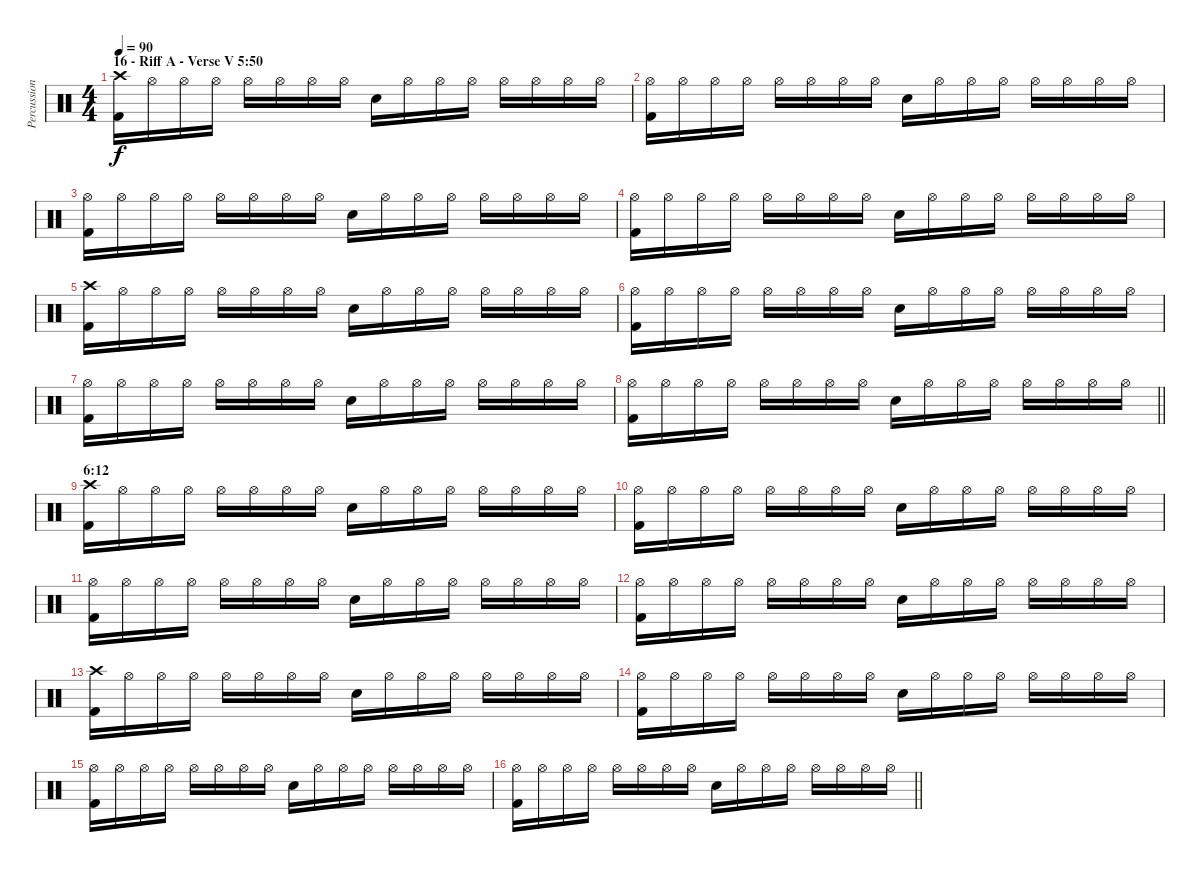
\track ("Percussion" "Percussion") {instrument percussion}
\staff {score}
\articulation defaults
\ts (4 4)
\section ("" "16 - Riff A - Verse V 5:50")
\tempo 90
\clef neutral
\ks c
("Crash high (hit)" "Kick (hit) 2").16{dy f} "Hi-Hat (open)".16 "Hi-Hat (open)".16 "Hi-Hat (open)".16 "Hi-Hat (open)".16 "Hi-Hat (open)".16 "Hi-Hat (open)".16 "Hi-Hat (open)".16 "Snare (hit) 2".16 "Hi-Hat (open)".16 "Hi-Hat (open)".16 "Hi-Hat (open)".16 "Hi-Hat (open)".16 "Hi-Hat (open)".16 "Hi-Hat (open)".16 "Hi-Hat (open)".16 |
("Hi-Hat (open)" "Kick (hit) 2").16 "Hi-Hat (open)".16 "Hi-Hat (open)".16 "Hi-Hat (open)".16 "Hi-Hat (open)".16 "Hi-Hat (open)".16 "Hi-Hat (open)".16 "Hi-Hat (open)".16 "Snare (hit) 2".16 "Hi-Hat (open)".16 "Hi-Hat (open)".16 "Hi-Hat (open)".16 "Hi-Hat (open)".16 "Hi-Hat (open)".16 "Hi-Hat (open)".16 "Hi-Hat (open)".16 |
("Hi-Hat (open)" "Kick (hit) 2").16 "Hi-Hat (open)".16 "Hi-Hat (open)".16 "Hi-Hat (open)".16 "Hi-Hat (open)".16 "Hi-Hat (open)".16 "Hi-Hat (open)".16 "Hi-Hat (open)".16 "Snare (hit) 2".16 "Hi-Hat (open)".16 "Hi-Hat (open)".16 "Hi-Hat (open)".16 "Hi-Hat (open)".16 "Hi-Hat (open)".16 "Hi-Hat (open)".16 "Hi-Hat (open)".16 |
("Hi-Hat (open)" "Kick (hit) 2").16 "Hi-Hat (open)".16 "Hi-Hat (open)".16 "Hi-Hat (open)".16 "Hi-Hat (open)".16 "Hi-Hat (open)".16 "Hi-Hat (open)".16 "Hi-Hat (open)".16 "Snare (hit) 2".16 "Hi-Hat (open)".16 "Hi-Hat (open)".16 "Hi-Hat (open)".16 "Hi-Hat (open)".16 "Hi-Hat (open)".16 "Hi-Hat (open)".16 "Hi-Hat (open)".16 |
("Crash high (hit)" "Kick (hit) 2").16 "Hi-Hat (open)".16 "Hi-Hat (open)".16 "Hi-Hat (open)".16 "Hi-Hat (open)".16 "Hi-Hat (open)".16 "Hi-Hat (open)".16 "Hi-Hat (open)".16 "Snare (hit) 2".16 "Hi-Hat (open)".16 "Hi-Hat (open)".16 "Hi-Hat (open)".16 "Hi-Hat (open)".16 "Hi-Hat (open)".16 "Hi-Hat (open)".16 "Hi-Hat (open)".16 |
("Hi-Hat (open)" "Kick (hit) 2").16 "Hi-Hat (open)".16 "Hi-Hat (open)".16 "Hi-Hat (open)".16 "Hi-Hat (open)".16 "Hi-Hat (open)".16 "Hi-Hat (open)".16 "Hi-Hat (open)".16 "Snare (hit) 2".16 "Hi-Hat (open)".16 "Hi-Hat (open)".16 "Hi-Hat (open)".16 "Hi-Hat (open)".16 "Hi-Hat (open)".16 "Hi-Hat (open)".16 "Hi-Hat (open)".16 |
("Hi-Hat (open)" "Kick (hit) 2").16 "Hi-Hat (open)".16 "Hi-Hat (open)".16 "Hi-Hat (open)".16 "Hi-Hat (open)".16 "Hi-Hat (open)".16 "Hi-Hat (open)".16 "Hi-Hat (open)".16 "Snare (hit) 2".16 "Hi-Hat (open)".16 "Hi-Hat (open)".16 "Hi-Hat (open)".16 "Hi-Hat (open)".16 "Hi-Hat (open)".16 "Hi-Hat (open)".16 "Hi-Hat (open)".16 |
\barLineRight lightlight
("Hi-Hat (open)" "Kick (hit) 2").16 "Hi-Hat (open)".16 "Hi-Hat (open)".16 "Hi-Hat (open)".16 "Hi-Hat (open)".16 "Hi-Hat (open)".16 "Hi-Hat (open)".16 "Hi-Hat (open)".16 "Snare (hit) 2".16 "Hi-Hat (open)".16 "Hi-Hat (open)".16 "Hi-Hat (open)".16 "Hi-Hat (open)".16 "Hi-Hat (open)".16 "Hi-Hat (open)".16 "Hi-Hat (open)".16 |
\section ("" "6:12")
("Crash high (hit)" "Kick (hit) 2").16 "Hi-Hat (open)".16 "Hi-Hat (open)".16 "Hi-Hat (open)".16 "Hi-Hat (open)".16 "Hi-Hat (open)".16 "Hi-Hat (open)".16 "Hi-Hat (open)".16 "Snare (hit) 2".16 "Hi-Hat (open)".16 "Hi-Hat (open)".16 "Hi-Hat (open)".16 "Hi-Hat (open)".16 "Hi-Hat (open)".16 "Hi-Hat (open)".16 "Hi-Hat (open)".16 |
("Hi-Hat (open)" "Kick (hit) 2").16 "Hi-Hat (open)".16 "Hi-Hat (open)".16 "Hi-Hat (open)".16 "Hi-Hat (open)".16 "Hi-Hat (open)".16 "Hi-Hat (open)".16 "Hi-Hat (open)".16 "Snare (hit) 2".16 "Hi-Hat (open)".16 "Hi-Hat (open)".16 "Hi-Hat (open)".16 "Hi-Hat (open)".16 "Hi-Hat (open)".16 "Hi-Hat (open)".16 "Hi-Hat (open)".16 |
("Hi-Hat (open)" "Kick (hit) 2").16 "Hi-Hat (open)".16 "Hi-Hat (open)".16 "Hi-Hat (open)".16 "Hi-Hat (open)".16 "Hi-Hat (open)".16 "Hi-Hat (open)".16 "Hi-Hat (open)".16 "Snare (hit) 2".16 "Hi-Hat (open)".16 "Hi-Hat (open)".16 "Hi-Hat (open)".16 "Hi-Hat (open)".16 "Hi-Hat (open)".16 "Hi-Hat (open)".16 "Hi-Hat (open)".16 |
("Hi-Hat (open)" "Kick (hit) 2").16 "Hi-Hat (open)".16 "Hi-Hat (open)".16 "Hi-Hat (open)".16 "Hi-Hat (open)".16 "Hi-Hat (open)".16 "Hi-Hat (open)".16 "Hi-Hat (open)".16 "Snare (hit) 2".16 "Hi-Hat (open)".16 "Hi-Hat (open)".16 "Hi-Hat (open)".16 "Hi-Hat (open)".16 "Hi-Hat (open)".16 "Hi-Hat (open)".16 "Hi-Hat (open)".16 |
("Crash high (hit)" "Kick (hit) 2").16 "Hi-Hat (open)".16 "Hi-Hat (open)".16 "Hi-Hat (open)".16 "Hi-Hat (open)".16 "Hi-Hat (open)".16 "Hi-Hat (open)".16 "Hi-Hat (open)".16 "Snare (hit) 2".16 "Hi-Hat (open)".16 "Hi-Hat (open)".16 "Hi-Hat (open)".16 "Hi-Hat (open)".16 "Hi-Hat (open)".16 "Hi-Hat (open)".16 "Hi-Hat (open)".16 |
("Hi-Hat (open)" "Kick (hit) 2").16 "Hi-Hat (open)".16 "Hi-Hat (open)".16 "Hi-Hat (open)".16 "Hi-Hat (open)".16 "Hi-Hat (open)".16 "Hi-Hat (open)".16 "Hi-Hat (open)".16 "Snare (hit) 2".16 "Hi-Hat (open)".16 "Hi-Hat (open)".16 "Hi-Hat (open)".16 "Hi-Hat (open)".16 "Hi-Hat (open)".16 "Hi-Hat (open)".16 "Hi-Hat (open)".16 |
("Hi-Hat (open)" "Kick (hit) 2").16 "Hi-Hat (open)".16 "Hi-Hat (open)".16 "Hi-Hat (open)".16 "Hi-Hat (open)".16 "Hi-Hat (open)".16 "Hi-Hat (open)".16 "Hi-Hat (open)".16 "Snare (hit) 2".16 "Hi-Hat (open)".16 "Hi-Hat (open)".16 "Hi-Hat (open)".16 "Hi-Hat (open)".16 "Hi-Hat (open)".16 "Hi-Hat (open)".16 "Hi-Hat (open)".16 |
\barLineRight lightlight
("Hi-Hat (open)" "Kick (hit) 2").16 "Hi-Hat (open)".16 "Hi-Hat (open)".16 "Hi-Hat (open)".16 "Hi-Hat (open)".16 "Hi-Hat (open)".16 "Hi-Hat (open)".16 "Hi-Hat (open)".16 "Snare (hit) 2".16 "Hi-Hat (open)".16 "Hi-Hat (open)".16 "Hi-Hat (open)".16 "Hi-Hat (open)".16 "Hi-Hat (open)".16 "Hi-Hat (open)".16 "Hi-Hat (open)".16
